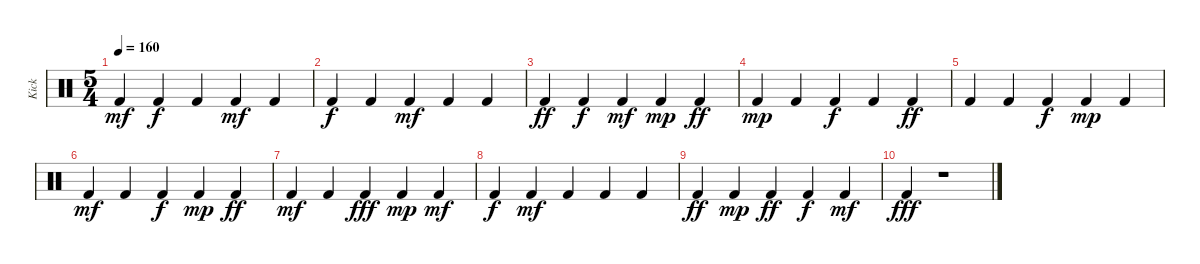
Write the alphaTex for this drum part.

\track ("Kick" "Kick") {instrument percussion}
\staff {score}
\articulation defaults
\ts (5 4)
\tempo 160
\clef neutral
\ks c "Kick (hit) 2".4{dy mf} "Kick (hit) 2".4{dy f} "Kick (hit) 2".4 "Kick (hit) 2".4{dy mf} "Kick (hit) 2".4
|
"Kick (hit) 2".4{dy f} "Kick (hit) 2".4 "Kick (hit) 2".4{dy mf} "Kick (hit) 2".4 "Kick (hit) 2".4 |
"Kick (hit) 2".4{dy ff} "Kick (hit) 2".4{dy f} "Kick (hit) 2".4{dy mf} "Kick (hit) 2".4{dy mp} "Kick (hit) 2".4{dy ff} |
"Kick (hit) 2".4{dy mp} "Kick (hit) 2".4 "Kick (hit) 2".4{dy f} "Kick (hit) 2".4 "Kick (hit) 2".4{dy ff} |
"Kick (hit) 2".4 "Kick (hit) 2".4 "Kick (hit) 2".4{dy f} "Kick (hit) 2".4{dy mp} "Kick (hit) 2".4 |
"Kick (hit) 2".4{dy mf} "Kick (hit) 2".4 "Kick (hit) 2".4{dy f} "Kick (hit) 2".4{dy mp} "Kick (hit) 2".4{dy ff} |
"Kick (hit) 2".4{dy mf} "Kick (hit) 2".4 "Kick (hit) 2".4{dy fff} "Kick (hit) 2".4{dy mp} "Kick (hit) 2".4{dy mf} |
"Kick (hit) 2".4{dy f} "Kick (hit) 2".4{dy mf} "Kick (hit) 2".4 "Kick (hit) 2".4 "Kick (hit) 2".4 |
"Kick (hit) 2".4{dy ff} "Kick (hit) 2".4{dy mp} "Kick (hit) 2".4{dy ff} "Kick (hit) 2".4{dy f} "Kick (hit) 2".4{dy mf} |
"Kick (hit) 2".4{dy fff} r.1
